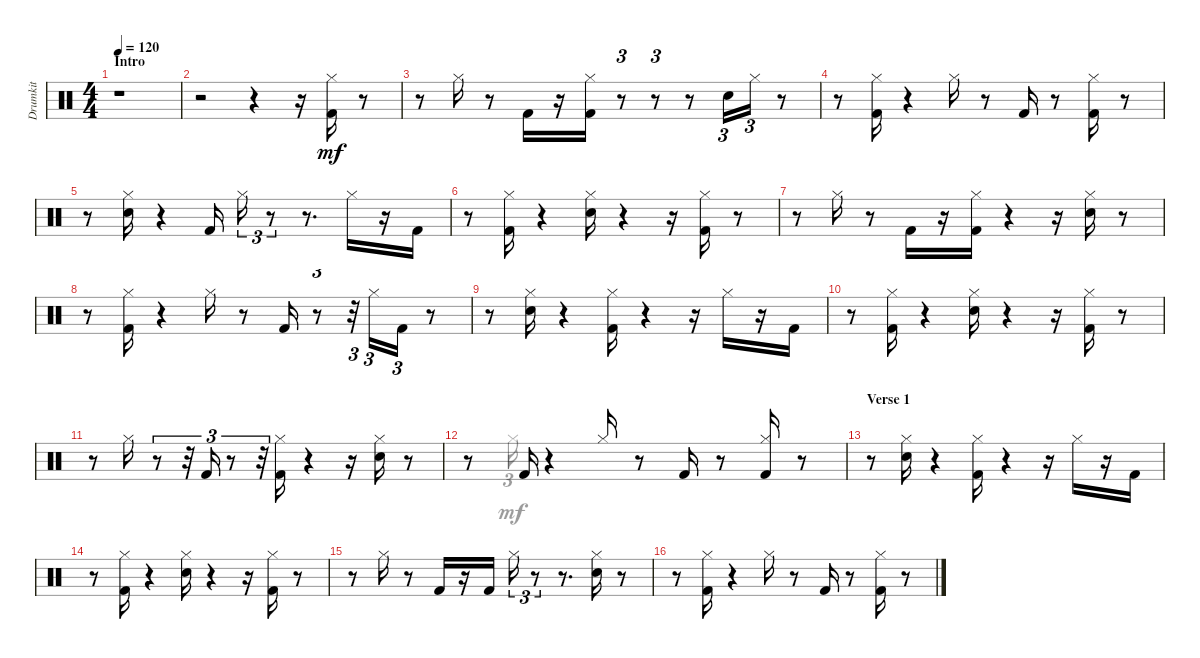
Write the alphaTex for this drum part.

\track ("Drumkit" "Drumkit") {instrument percussion}
\staff {score}
\articulation defaults
\voice
\ts (4 4)
\section ("" "Intro")
\tempo 120
\clef neutral
\ks aminor
r.1{dy mf} |
r.2 r.4 r.16 ("Kick (hit) 2" "Hi-Hat (closed)").16 r.8 |
r.8 "Hi-Hat (closed)".16 r.8 "Kick (hit) 2".16 r.16 ("Kick (hit) 2" "Hi-Hat (closed)").16 r.8{tu (3 2)} r.8{tu (3 2)} r.8 "Snare (hit) 2".16{tu (3 2)} "Hi-Hat (closed)".16{tu (3 2)} r.8 |
r.8 ("Kick (hit) 2" "Hi-Hat (closed)").16 r.4 "Hi-Hat (closed)".16 r.8 "Kick (hit) 2".16 r.8 ("Kick (hit) 2" "Hi-Hat (closed)").16 r.8 |
r.8 ("Snare (hit) 2" "Hi-Hat (closed)").16 r.4 "Kick (hit) 2".16 "Hi-Hat (closed)".16{tu (3 2)} r.8{tu (3 2)} r.8{d} "Hi-Hat (closed)".16 r.16 "Kick (hit) 2".16 |
r.8 ("Kick (hit) 2" "Hi-Hat (closed)").16 r.4 ("Snare (hit) 2" "Hi-Hat (closed)").16 r.4 r.16 ("Kick (hit) 2" "Hi-Hat (closed)").16 r.8 |
r.8 "Hi-Hat (closed)".16 r.8 "Kick (hit) 2".16 r.16 ("Kick (hit) 2" "Hi-Hat (closed)").16 r.4 r.16 ("Snare (hit) 2" "Hi-Hat (closed)").16 r.8 |
r.8 ("Kick (hit) 2" "Hi-Hat (closed)").16 r.4 "Hi-Hat (closed)".16 r.8 "Kick (hit) 2".16 r.8{tu (3 2)} r.32{tu (3 2)} "Hi-Hat (closed)".16{tu (3 2)} "Kick (hit) 2".16{tu (3 2)} r.8 |
r.8 ("Snare (hit) 2" "Hi-Hat (closed)").16 r.4 ("Kick (hit) 2" "Hi-Hat (closed)").16 r.4 r.16 "Hi-Hat (closed)".16 r.16 "Kick (hit) 2".16 |
r.8 ("Kick (hit) 2" "Hi-Hat (closed)").16 r.4 ("Snare (hit) 2" "Hi-Hat (closed)").16 r.4 r.16 ("Kick (hit) 2" "Hi-Hat (closed)").16 r.8 |
r.8 "Hi-Hat (closed)".16 r.8{tu (3 2)} r.32{tu (3 2)} "Kick (hit) 2".16{tu (3 2)} r.8{tu (3 2)} r.32{tu (3 2)} ("Kick (hit) 2" "Hi-Hat (closed)").16 r.4 r.16 ("Snare (hit) 2" "Hi-Hat (closed)").16 r.8 |
r.8 "Kick (hit) 2".16 r.4 "Hi-Hat (closed)".16 r.8 "Kick (hit) 2".16 r.8 ("Kick (hit) 2" "Hi-Hat (closed)").16 r.8 |
\section ("" "Verse 1")
r.8 ("Snare (hit) 2" "Hi-Hat (closed)").16 r.4 ("Kick (hit) 2" "Hi-Hat (closed)").16 r.4 r.16 "Hi-Hat (closed)".16 r.16 "Kick (hit) 2".16 |
r.8 ("Kick (hit) 2" "Hi-Hat (closed)").16 r.4 ("Snare (hit) 2" "Hi-Hat (closed)").16 r.4 r.16 ("Kick (hit) 2" "Hi-Hat (closed)").16 r.8 |
r.8 "Hi-Hat (closed)".16 r.8 "Kick (hit) 2".16 r.16 "Kick (hit) 2".16 "Hi-Hat (closed)".16{tu (3 2)} r.8{tu (3 2)} r.8{d} ("Snare (hit) 2" "Hi-Hat (closed)").16 r.8 |
r.8 ("Kick (hit) 2" "Hi-Hat (closed)").16 r.4 "Hi-Hat (closed)".16 r.8 "Kick (hit) 2".16 r.8 ("Kick (hit) 2" "Hi-Hat (closed)").16 r.8
\voice
\clef neutral
\ottava regular
\simile none
\ks aminor
|
|
|
|
|
|
|
|
|
|
|
r.8 "Hi-Hat (closed)".16{tu (3 2)} |
|
|
|
